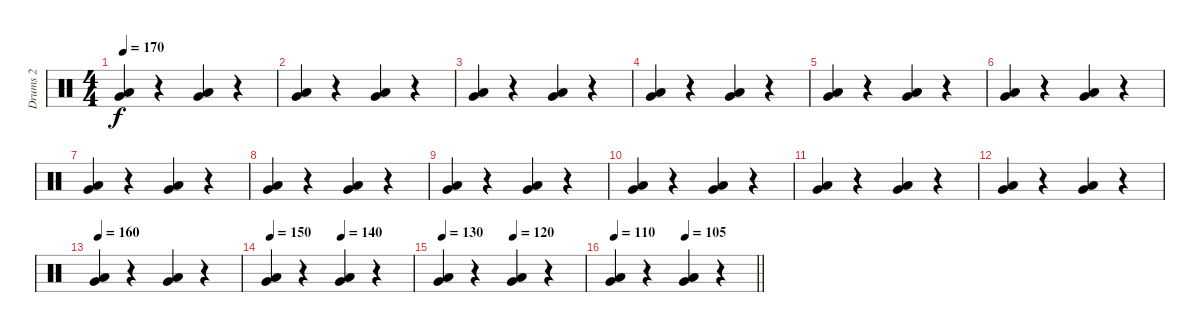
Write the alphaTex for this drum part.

\track ("Drums 2" "Drums 2") {instrument percussion}
\staff {score}
\articulation defaults
\ts (4 4)
\tempo 170
\clef neutral
\ks c
("Very Low Tom (hit)" "Low Tom (hit)").4{dy f} r.4 ("Very Low Tom (hit)" "Low Tom (hit)").4 r.4 |
("Very Low Tom (hit)" "Low Tom (hit)").4 r.4 ("Very Low Tom (hit)" "Low Tom (hit)").4 r.4 |
("Very Low Tom (hit)" "Low Tom (hit)").4 r.4 ("Very Low Tom (hit)" "Low Tom (hit)").4 r.4 |
("Very Low Tom (hit)" "Low Tom (hit)").4 r.4 ("Very Low Tom (hit)" "Low Tom (hit)").4 r.4 |
("Very Low Tom (hit)" "Low Tom (hit)").4 r.4 ("Very Low Tom (hit)" "Low Tom (hit)").4 r.4 |
("Very Low Tom (hit)" "Low Tom (hit)").4 r.4 ("Very Low Tom (hit)" "Low Tom (hit)").4 r.4 |
("Very Low Tom (hit)" "Low Tom (hit)").4 r.4 ("Very Low Tom (hit)" "Low Tom (hit)").4 r.4 |
("Very Low Tom (hit)" "Low Tom (hit)").4 r.4 ("Very Low Tom (hit)" "Low Tom (hit)").4 r.4 |
("Very Low Tom (hit)" "Low Tom (hit)").4 r.4 ("Very Low Tom (hit)" "Low Tom (hit)").4 r.4 |
("Very Low Tom (hit)" "Low Tom (hit)").4 r.4 ("Very Low Tom (hit)" "Low Tom (hit)").4 r.4 |
("Very Low Tom (hit)" "Low Tom (hit)").4 r.4 ("Very Low Tom (hit)" "Low Tom (hit)").4 r.4 |
("Very Low Tom (hit)" "Low Tom (hit)").4 r.4 ("Very Low Tom (hit)" "Low Tom (hit)").4 r.4 |
\tempo 160
("Very Low Tom (hit)" "Low Tom (hit)").4 r.4 ("Very Low Tom (hit)" "Low Tom (hit)").4 r.4 |
\tempo 150
\tempo (140 0.5)
("Very Low Tom (hit)" "Low Tom (hit)").4 r.4 ("Very Low Tom (hit)" "Low Tom (hit)").4 r.4 |
\tempo 130
\tempo (120 0.5)
("Very Low Tom (hit)" "Low Tom (hit)").4 r.4 ("Very Low Tom (hit)" "Low Tom (hit)").4 r.4 |
\tempo 110
\tempo (105 0.5)
\barLineRight lightlight
("Very Low Tom (hit)" "Low Tom (hit)").4 r.4 ("Very Low Tom (hit)" "Low Tom (hit)").4 r.4
